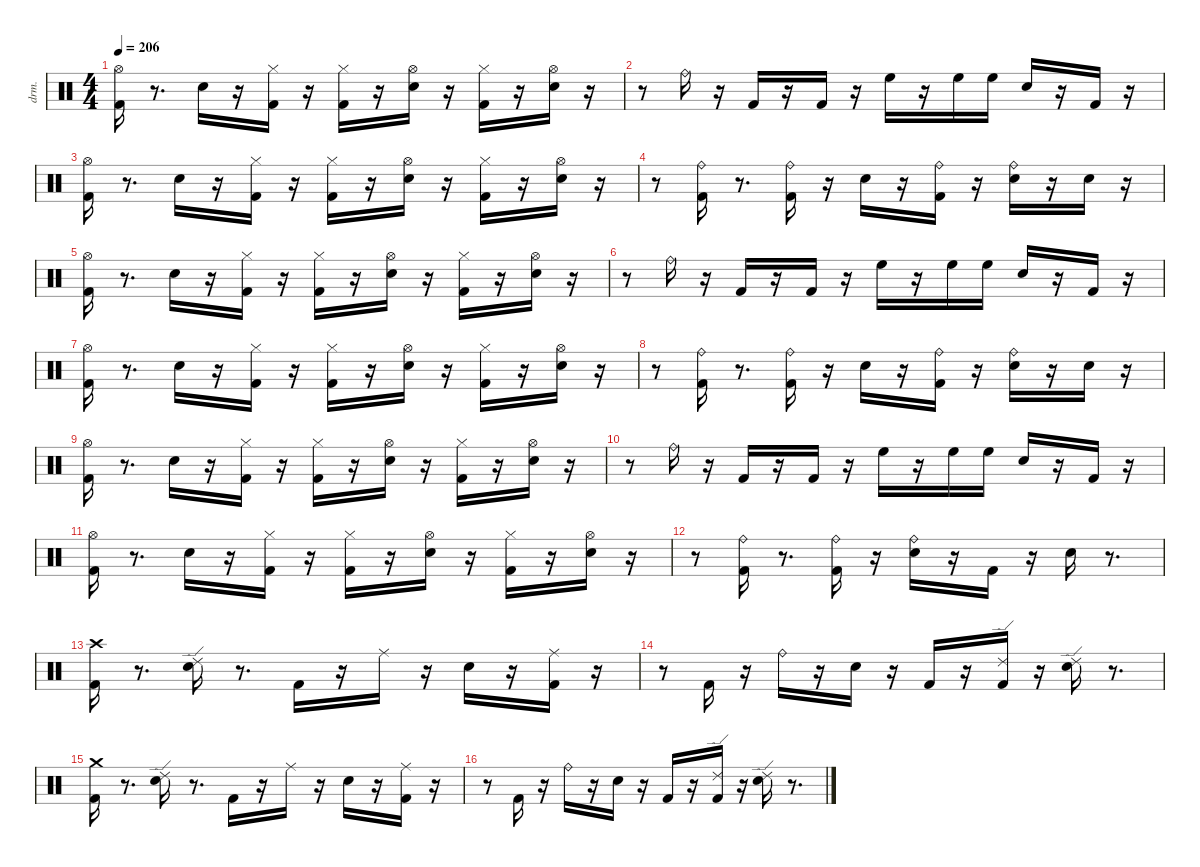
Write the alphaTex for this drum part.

\defaultSystemsLayout 4
\hideDynamics
\bracketExtendMode nobrackets
\otherSystemsTrackNameOrientation horizontal
\track ("EZdrummer 3" "drm.") {instrument percussion}
\staff {score}
\articulation defaults
\ts (4 4)
\tempo 206
\clef neutral
\ks aminor
("Kick (hit) 2" "Hi-Hat (open)"{acc #}).16{dy ff beam Down} r.8{d beam Down} "Snare (hit) 2".16{dy pp beam Down} r.16{beam Down} ("Kick (hit) 2" "Hi-Hat (closed)"{acc #}).16{dy ff beam Down} r.16{beam Down} ("Kick (hit) 2" "Hi-Hat (closed)"{acc #}).16{beam Down} r.16{beam Down} ("Snare (hit) 2" "Hi-Hat (open)"{acc #}).16{beam Down} r.16{beam Down} ("Kick (hit) 2" "Hi-Hat (closed)"{acc #}).16{beam Down} r.16{beam Down} ("Snare (hit) 2" "Hi-Hat (open)"{acc #}).16{dy fff beam Down} r.16{beam Down} |
r.8{beam Down} "Ride (bell)".16{beam Down} r.16{beam Down} "Kick (hit) 2".16{dy mf beam Up} r.16{beam Up} "Kick (hit) 2".16{dy fff beam Up} r.16{beam Up} "High Floor Tom (hit)".16{dy ff beam Down} r.16{beam Down} "High Floor Tom (hit)".16{dy mf beam Down} "High Floor Tom (hit)".16{dy ppp beam Down} "Snare (hit) 2".16{dy ff beam Up} r.16{beam Up} "Kick (hit) 2".16{dy mp beam Up} r.16{beam Up} |
("Kick (hit) 2" "Hi-Hat (open)"{acc #}).16{dy ff beam Down} r.8{d beam Down} "Snare (hit) 2".16{dy pp beam Down} r.16{beam Down} ("Kick (hit) 2" "Hi-Hat (closed)"{acc #}).16{dy ff beam Down} r.16{beam Down} ("Kick (hit) 2" "Hi-Hat (closed)"{acc #}).16{beam Down} r.16{beam Down} ("Snare (hit) 2" "Hi-Hat (open)"{acc #}).16{beam Down} r.16{beam Down} ("Kick (hit) 2" "Hi-Hat (closed)"{acc #}).16{beam Down} r.16{beam Down} ("Snare (hit) 2" "Hi-Hat (open)"{acc #}).16{dy fff beam Down} r.16{beam Down} |
r.8{beam Down} ("Kick (hit) 2" "Ride (bell)").16{dy ff beam Down} r.8{d beam Down} ("Kick (hit) 2" "Ride (bell)").16{beam Down} r.16{beam Down} "Snare (hit) 2".16{beam Down} r.16{beam Down} ("Kick (hit) 2" "Ride (bell)").16{beam Down} r.16{beam Down} ("Snare (hit) 2" "Ride (bell)").16{beam Down} r.16{beam Down} "Snare (hit) 2".16{dy mp beam Down} r.16{beam Down} |
("Kick (hit) 2" "Hi-Hat (open)"{acc #}).16{dy ff beam Down} r.8{d beam Down} "Snare (hit) 2".16{dy pp beam Down} r.16{beam Down} ("Kick (hit) 2" "Hi-Hat (closed)"{acc #}).16{dy ff beam Down} r.16{beam Down} ("Kick (hit) 2" "Hi-Hat (closed)"{acc #}).16{beam Down} r.16{beam Down} ("Snare (hit) 2" "Hi-Hat (open)"{acc #}).16{beam Down} r.16{beam Down} ("Kick (hit) 2" "Hi-Hat (closed)"{acc #}).16{beam Down} r.16{beam Down} ("Snare (hit) 2" "Hi-Hat (open)"{acc #}).16{dy fff beam Down} r.16{beam Down} |
r.8{beam Down} "Ride (bell)".16{beam Down} r.16{beam Down} "Kick (hit) 2".16{dy mf beam Up} r.16{beam Up} "Kick (hit) 2".16{dy fff beam Up} r.16{beam Up} "High Floor Tom (hit)".16{dy ff beam Down} r.16{beam Down} "High Floor Tom (hit)".16{dy mf beam Down} "High Floor Tom (hit)".16{dy ppp beam Down} "Snare (hit) 2".16{dy ff beam Up} r.16{beam Up} "Kick (hit) 2".16{dy mp beam Up} r.16{beam Up} |
("Kick (hit) 2" "Hi-Hat (open)"{acc #}).16{dy ff beam Down} r.8{d beam Down} "Snare (hit) 2".16{dy pp beam Down} r.16{beam Down} ("Kick (hit) 2" "Hi-Hat (closed)"{acc #}).16{dy ff beam Down} r.16{beam Down} ("Kick (hit) 2" "Hi-Hat (closed)"{acc #}).16{beam Down} r.16{beam Down} ("Snare (hit) 2" "Hi-Hat (open)"{acc #}).16{beam Down} r.16{beam Down} ("Kick (hit) 2" "Hi-Hat (closed)"{acc #}).16{beam Down} r.16{beam Down} ("Snare (hit) 2" "Hi-Hat (open)"{acc #}).16{dy fff beam Down} r.16{beam Down} |
r.8{beam Down} ("Kick (hit) 2" "Ride (bell)").16{dy ff beam Down} r.8{d beam Down} ("Kick (hit) 2" "Ride (bell)").16{beam Down} r.16{beam Down} "Snare (hit) 2".16{beam Down} r.16{beam Down} ("Kick (hit) 2" "Ride (bell)").16{beam Down} r.16{beam Down} ("Snare (hit) 2" "Ride (bell)").16{beam Down} r.16{beam Down} "Snare (hit) 2".16{dy mp beam Down} r.16{beam Down} |
("Kick (hit) 2" "Hi-Hat (open)"{acc #}).16{dy ff beam Down} r.8{d beam Down} "Snare (hit) 2".16{dy pp beam Down} r.16{beam Down} ("Kick (hit) 2" "Hi-Hat (closed)"{acc #}).16{dy ff beam Down} r.16{beam Down} ("Kick (hit) 2" "Hi-Hat (closed)"{acc #}).16{beam Down} r.16{beam Down} ("Snare (hit) 2" "Hi-Hat (open)"{acc #}).16{beam Down} r.16{beam Down} ("Kick (hit) 2" "Hi-Hat (closed)"{acc #}).16{beam Down} r.16{beam Down} ("Snare (hit) 2" "Hi-Hat (open)"{acc #}).16{dy fff beam Down} r.16{beam Down} |
r.8{beam Down} "Ride (bell)".16{beam Down} r.16{beam Down} "Kick (hit) 2".16{dy mf beam Up} r.16{beam Up} "Kick (hit) 2".16{dy fff beam Up} r.16{beam Up} "High Floor Tom (hit)".16{dy ff beam Down} r.16{beam Down} "High Floor Tom (hit)".16{dy mf beam Down} "High Floor Tom (hit)".16{dy ppp beam Down} "Snare (hit) 2".16{dy ff beam Up} r.16{beam Up} "Kick (hit) 2".16{dy mp beam Up} r.16{beam Up} |
("Kick (hit) 2" "Hi-Hat (open)"{acc #}).16{dy ff beam Down} r.8{d beam Down} "Snare (hit) 2".16{dy pp beam Down} r.16{beam Down} ("Kick (hit) 2" "Hi-Hat (closed)"{acc #}).16{dy ff beam Down} r.16{beam Down} ("Kick (hit) 2" "Hi-Hat (closed)"{acc #}).16{beam Down} r.16{beam Down} ("Snare (hit) 2" "Hi-Hat (open)"{acc #}).16{beam Down} r.16{beam Down} ("Kick (hit) 2" "Hi-Hat (closed)"{acc #}).16{beam Down} r.16{beam Down} ("Snare (hit) 2" "Hi-Hat (open)"{acc #}).16{dy fff beam Down} r.16{beam Down} |
r.8{beam Down} ("Kick (hit) 2" "Ride (bell)").16{dy ff beam Down} r.8{d beam Down} ("Kick (hit) 2" "Ride (bell)").16{beam Down} r.16{beam Down} ("Snare (hit) 2" "Ride (bell)").16{beam Down} r.16{beam Down} "Kick (hit) 2".16{beam Down} r.16{beam Down} "Snare (hit) 2".16{dy fff beam Down} r.8{d beam Down} |
("Kick (hit) 2" "Crash high (hit)"{acc #}).16{beam Down} r.8{d beam Down} ("Snare (hit) 2" "Ride (edge) 2").16{dy ff beam Down} r.8{d beam Down} "Kick (hit) 2".16{beam Down} r.16{beam Down} "Ride (middle)"{acc #}.16{dy fff beam Down} r.16{beam Down} "Snare (hit) 2".16{dy ff beam Down} r.16{beam Down} ("Kick (hit) 2" "Ride (middle)"{acc #}).16{beam Down} r.16{beam Down} |
r.8{beam Down} "Kick (hit) 2".16{beam Up} r.16{beam Up} "Ride (bell)".16{dy fff beam Down} r.16{beam Down} "Snare (hit) 2".16{dy ff beam Down} r.16{beam Down} "Kick (hit) 2".16{dy mf beam Up} r.16{beam Up} ("Kick (hit) 2" "Ride (edge) 2").16{dy fff beam Up} r.16{beam Up} ("Snare (hit) 2" "Ride (edge) 2").16{dy ff beam Down} r.8{d beam Down} |
("Kick (hit) 2" "Crash medium (hit)").16{beam Down} r.8{d beam Down} ("Snare (hit) 2" "Ride (edge) 2").16{beam Down} r.8{d beam Down} "Kick (hit) 2".16{beam Down} r.16{beam Down} "Ride (middle)"{acc #}.16{dy fff beam Down} r.16{beam Down} "Snare (hit) 2".16{dy ff beam Down} r.16{beam Down} ("Kick (hit) 2" "Ride (middle)"{acc #}).16{beam Down} r.16{beam Down} |
r.8{beam Down} "Kick (hit) 2".16{beam Up} r.16{beam Up} "Ride (bell)".16{beam Down} r.16{beam Down} "Snare (hit) 2".16{beam Down} r.16{beam Down} "Kick (hit) 2".16{dy mf beam Up} r.16{beam Up} ("Kick (hit) 2" "Ride (edge) 2").16{dy fff beam Up} r.16{beam Up} ("Snare (hit) 2" "Ride (edge) 2").16{dy ff beam Down} r.8{d beam Down}
